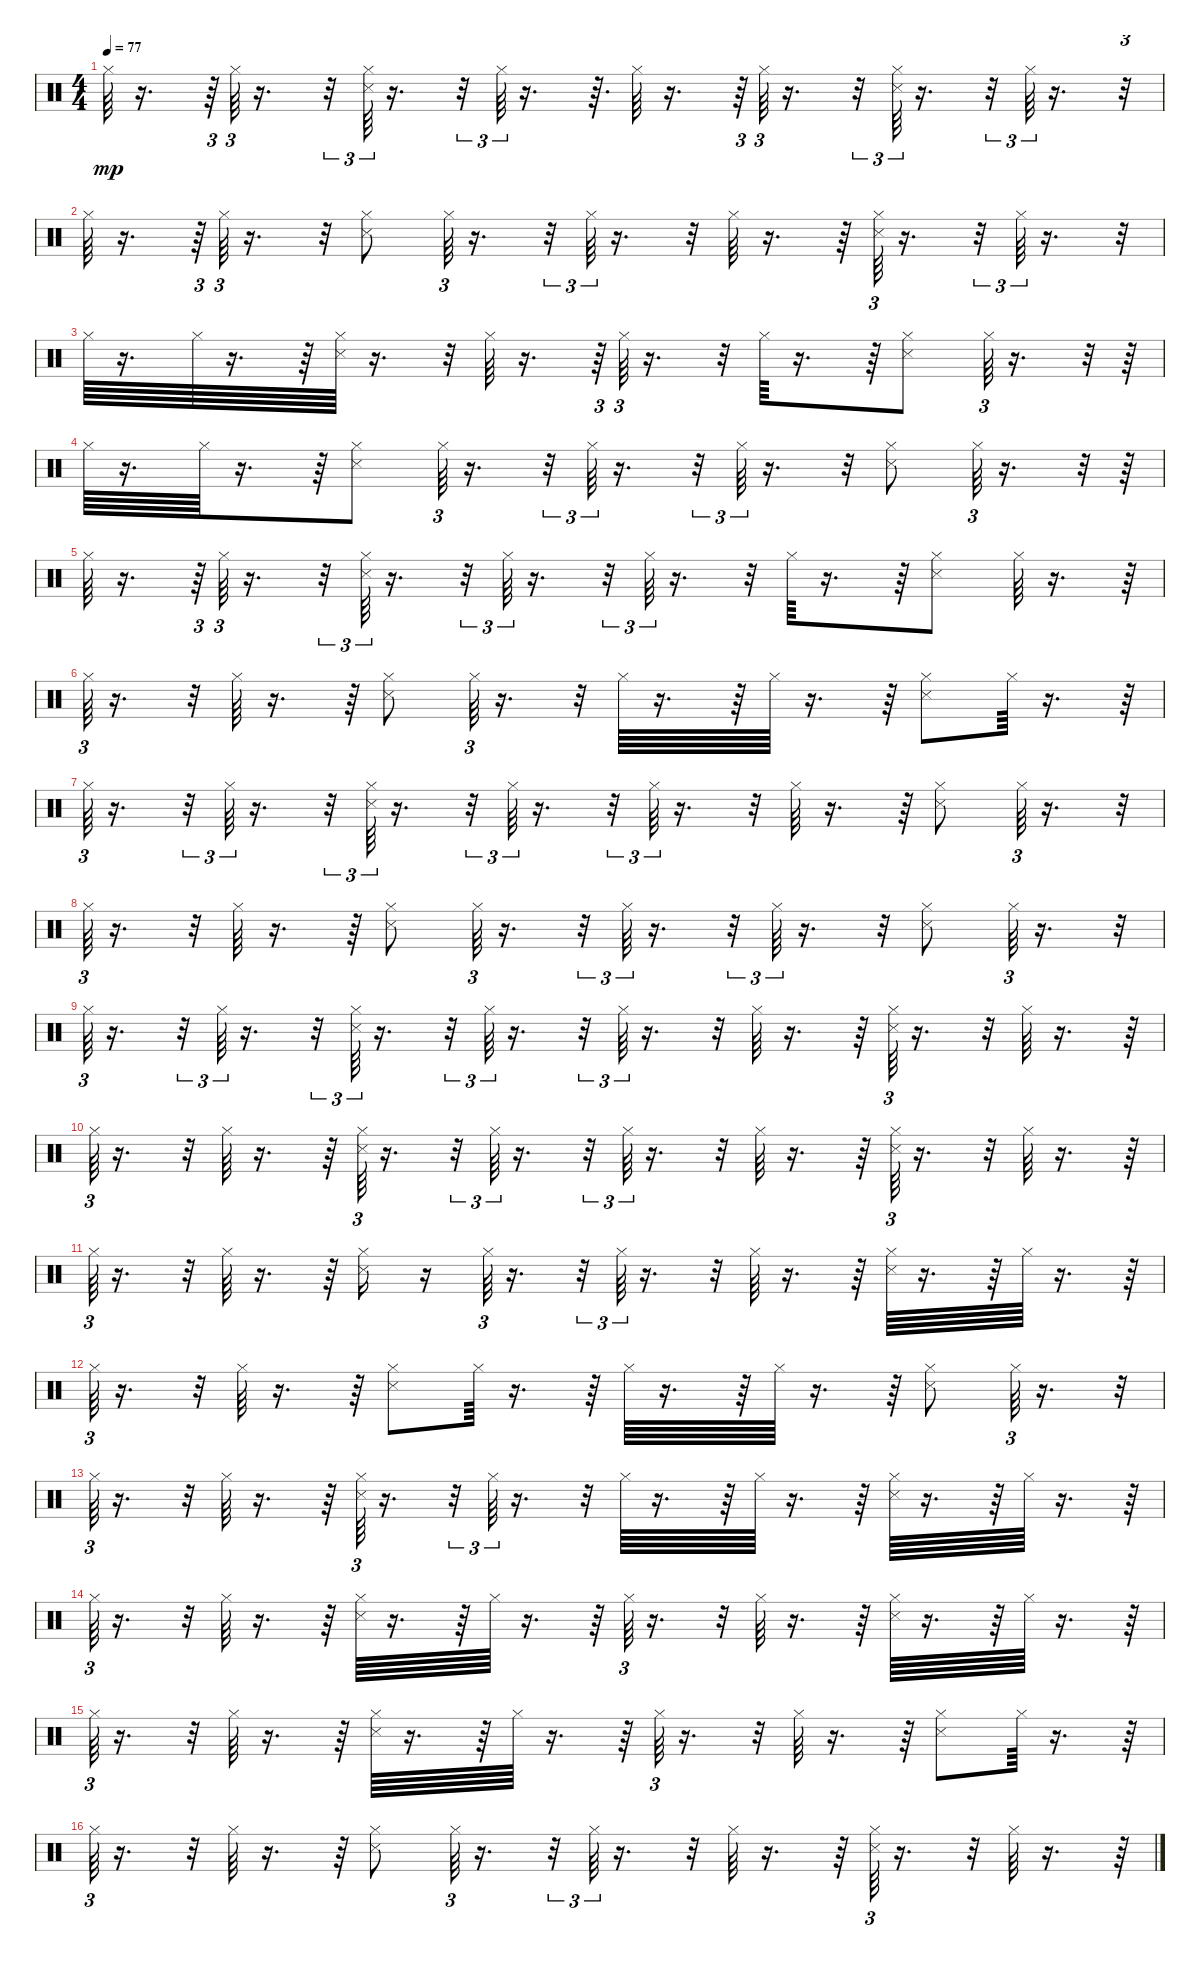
\track "" {instrument percussion}
\staff {score}
\articulation defaults
\ts (4 4)
\tempo 77
\clef neutral
\ks c "Hi-Hat (closed)".64{dy mp}
r.16{d} r.64{tu (3 2)} "Hi-Hat (closed)".64{tu (3 2)} r.16{d} r.32{tu (3 2)} ("Hi-Hat (closed)" "Snare (side stick) 3").64{tu (3 2)} r.16{d} r.32{tu (3 2)} "Hi-Hat (closed)".64{tu (3 2)} r.16{d} r.64{d} "Hi-Hat (closed)".64 r.16{d} r.64{tu (3 2)} "Hi-Hat (closed)".64{tu (3 2)} r.16{d} r.32{tu (3 2)} ("Hi-Hat (closed)" "Snare (side stick) 3").64{tu (3 2)} r.16{d} r.32{tu (3 2)} "Hi-Hat (closed)".64{tu (3 2)} r.16{d} r.32{tu (3 2)} |
"Hi-Hat (closed)".64 r.16{d} r.64{tu (3 2)} "Hi-Hat (closed)".64{tu (3 2)} r.16{d} r.32{tu (3 2)} ("Snare (side stick) 3" "Hi-Hat (closed)").8 "Hi-Hat (closed)".64{tu (3 2)} r.16{d} r.32{tu (3 2)} "Hi-Hat (closed)".64{tu (3 2)} r.16{d} r.32{tu (3 2)} "Hi-Hat (closed)".64 r.16{d} r.64 ("Hi-Hat (closed)" "Snare (side stick) 3").64{tu (3 2)} r.16{d} r.32{tu (3 2)} "Hi-Hat (closed)".64{tu (3 2)} r.16{d} r.32{tu (3 2)} |
"Hi-Hat (closed)".64 r.16{d} "Hi-Hat (closed)".64 r.16{d} r.64 ("Hi-Hat (closed)" "Snare (side stick) 3").64 r.16{d} r.32{tu (3 2)} "Hi-Hat (closed)".64 r.16{d} r.64{tu (3 2)} "Hi-Hat (closed)".64{tu (3 2)} r.16{d} r.32{tu (3 2)} "Hi-Hat (closed)".64 r.16{d} r.64 ("Snare (side stick) 3" "Hi-Hat (closed)").8 "Hi-Hat (closed)".64{tu (3 2)} r.16{d} r.32{tu (3 2)} r.64 |
"Hi-Hat (closed)".64 r.16{d} "Hi-Hat (closed)".64 r.16{d} r.64 ("Snare (side stick) 3" "Hi-Hat (closed)").8 "Hi-Hat (closed)".64{tu (3 2)} r.16{d} r.32{tu (3 2)} "Hi-Hat (closed)".64{tu (3 2)} r.16{d} r.32{tu (3 2)} "Hi-Hat (closed)".64{tu (3 2)} r.16{d} r.32{tu (3 2)} ("Snare (side stick) 3" "Hi-Hat (closed)").8 "Hi-Hat (closed)".64{tu (3 2)} r.16{d} r.32{tu (3 2)} r.64 |
"Hi-Hat (closed)".64 r.16{d} r.64{tu (3 2)} "Hi-Hat (closed)".64{tu (3 2)} r.16{d} r.32{tu (3 2)} ("Hi-Hat (closed)" "Snare (side stick) 3").64{tu (3 2)} r.16{d} r.32{tu (3 2)} "Hi-Hat (closed)".64{tu (3 2)} r.16{d} r.32{tu (3 2)} "Hi-Hat (closed)".64{tu (3 2)} r.16{d} r.32{tu (3 2)} "Hi-Hat (closed)".64 r.16{d} r.64 ("Snare (side stick) 3" "Hi-Hat (closed)").8 "Hi-Hat (closed)".64 r.16{d} r.64 |
"Hi-Hat (closed)".64{tu (3 2)} r.16{d} r.32{tu (3 2)} "Hi-Hat (closed)".64 r.16{d} r.64 ("Snare (side stick) 3" "Hi-Hat (closed)").8 "Hi-Hat (closed)".64{tu (3 2)} r.16{d} r.32{tu (3 2)} "Hi-Hat (closed)".64 r.16{d} r.64 "Hi-Hat (closed)".64 r.16{d} r.64 ("Snare (side stick) 3" "Hi-Hat (closed)").8 "Hi-Hat (closed)".64 r.16{d} r.64 |
"Hi-Hat (closed)".64{tu (3 2)} r.16{d} r.32{tu (3 2)} "Hi-Hat (closed)".64{tu (3 2)} r.16{d} r.32{tu (3 2)} ("Hi-Hat (closed)" "Snare (side stick) 3").64{tu (3 2)} r.16{d} r.32{tu (3 2)} "Hi-Hat (closed)".64{tu (3 2)} r.16{d} r.32{tu (3 2)} "Hi-Hat (closed)".64{tu (3 2)} r.16{d} r.32{tu (3 2)} "Hi-Hat (closed)".64 r.16{d} r.64 ("Snare (side stick) 3" "Hi-Hat (closed)").8 "Hi-Hat (closed)".64{tu (3 2)} r.16{d} r.32{tu (3 2)} |
"Hi-Hat (closed)".64{tu (3 2)} r.16{d} r.32{tu (3 2)} "Hi-Hat (closed)".64 r.16{d} r.64 ("Snare (side stick) 3" "Hi-Hat (closed)").8 "Hi-Hat (closed)".64{tu (3 2)} r.16{d} r.32{tu (3 2)} "Hi-Hat (closed)".64{tu (3 2)} r.16{d} r.32{tu (3 2)} "Hi-Hat (closed)".64{tu (3 2)} r.16{d} r.32{tu (3 2)} ("Snare (side stick) 3" "Hi-Hat (closed)").8 "Hi-Hat (closed)".64{tu (3 2)} r.16{d} r.32{tu (3 2)} |
"Hi-Hat (closed)".64{tu (3 2)} r.16{d} r.32{tu (3 2)} "Hi-Hat (closed)".64{tu (3 2)} r.16{d} r.32{tu (3 2)} ("Hi-Hat (closed)" "Snare (side stick) 3").64{tu (3 2)} r.16{d} r.32{tu (3 2)} "Hi-Hat (closed)".64{tu (3 2)} r.16{d} r.32{tu (3 2)} "Hi-Hat (closed)".64{tu (3 2)} r.16{d} r.32{tu (3 2)} "Hi-Hat (closed)".64 r.16{d} r.64 ("Hi-Hat (closed)" "Snare (side stick) 3").64{tu (3 2)} r.16{d} r.32{tu (3 2)} "Hi-Hat (closed)".64 r.16{d} r.64 |
"Hi-Hat (closed)".64{tu (3 2)} r.16{d} r.32{tu (3 2)} "Hi-Hat (closed)".64 r.16{d} r.64 ("Hi-Hat (closed)" "Snare (side stick) 3").64{tu (3 2)} r.16{d} r.32{tu (3 2)} "Hi-Hat (closed)".64{tu (3 2)} r.16{d} r.32{tu (3 2)} "Hi-Hat (closed)".64{tu (3 2)} r.16{d} r.32{tu (3 2)} "Hi-Hat (closed)".64 r.16{d} r.64 ("Hi-Hat (closed)" "Snare (side stick) 3").64{tu (3 2)} r.16{d} r.32{tu (3 2)} "Hi-Hat (closed)".64 r.16{d} r.64 |
"Hi-Hat (closed)".64{tu (3 2)} r.16{d} r.32{tu (3 2)} "Hi-Hat (closed)".64 r.16{d} r.64 ("Hi-Hat (closed)" "Snare (side stick) 3").16 r.16 "Hi-Hat (closed)".64{tu (3 2)} r.16{d} r.32{tu (3 2)} "Hi-Hat (closed)".64{tu (3 2)} r.16{d} r.32{tu (3 2)} "Hi-Hat (closed)".64 r.16{d} r.64 ("Hi-Hat (closed)" "Snare (side stick) 3").64 r.16{d} r.64 "Hi-Hat (closed)".64 r.16{d} r.64 |
"Hi-Hat (closed)".64{tu (3 2)} r.16{d} r.32{tu (3 2)} "Hi-Hat (closed)".64 r.16{d} r.64 ("Snare (side stick) 3" "Hi-Hat (closed)").8 "Hi-Hat (closed)".64 r.16{d} r.64 "Hi-Hat (closed)".64 r.16{d} r.64 "Hi-Hat (closed)".64 r.16{d} r.64 ("Snare (side stick) 3" "Hi-Hat (closed)").8 "Hi-Hat (closed)".64{tu (3 2)} r.16{d} r.32{tu (3 2)} |
"Hi-Hat (closed)".64{tu (3 2)} r.16{d} r.32{tu (3 2)} "Hi-Hat (closed)".64 r.16{d} r.64 ("Hi-Hat (closed)" "Snare (side stick) 3").64{tu (3 2)} r.16{d} r.32{tu (3 2)} "Hi-Hat (closed)".64{tu (3 2)} r.16{d} r.32{tu (3 2)} "Hi-Hat (closed)".64 r.16{d} r.64 "Hi-Hat (closed)".64 r.16{d} r.64 ("Hi-Hat (closed)" "Snare (side stick) 3").64 r.16{d} r.64 "Hi-Hat (closed)".64 r.16{d} r.64 |
"Hi-Hat (closed)".64{tu (3 2)} r.16{d} r.32{tu (3 2)} "Hi-Hat (closed)".64 r.16{d} r.64 ("Hi-Hat (closed)" "Snare (side stick) 3").64 r.16{d} r.64 "Hi-Hat (closed)".64 r.16{d} r.64 "Hi-Hat (closed)".64{tu (3 2)} r.16{d} r.32{tu (3 2)} "Hi-Hat (closed)".64 r.16{d} r.64 ("Hi-Hat (closed)" "Snare (side stick) 3").64 r.16{d} r.64 "Hi-Hat (closed)".64 r.16{d} r.64 |
"Hi-Hat (closed)".64{tu (3 2)} r.16{d} r.32{tu (3 2)} "Hi-Hat (closed)".64 r.16{d} r.64 ("Hi-Hat (closed)" "Snare (side stick) 3").64 r.16{d} r.64 "Hi-Hat (closed)".64 r.16{d} r.64 "Hi-Hat (closed)".64{tu (3 2)} r.16{d} r.32{tu (3 2)} "Hi-Hat (closed)".64 r.16{d} r.64 ("Snare (side stick) 3" "Hi-Hat (closed)").8 "Hi-Hat (closed)".64 r.16{d} r.64 |
"Hi-Hat (closed)".64{tu (3 2)} r.16{d} r.32{tu (3 2)} "Hi-Hat (closed)".64 r.16{d} r.64 ("Snare (side stick) 3" "Hi-Hat (closed)").8 "Hi-Hat (closed)".64{tu (3 2)} r.16{d} r.32{tu (3 2)} "Hi-Hat (closed)".64{tu (3 2)} r.16{d} r.32{tu (3 2)} "Hi-Hat (closed)".64 r.16{d} r.64 ("Hi-Hat (closed)" "Snare (side stick) 3").64{tu (3 2)} r.16{d} r.32{tu (3 2)} "Hi-Hat (closed)".64 r.16{d} r.64
